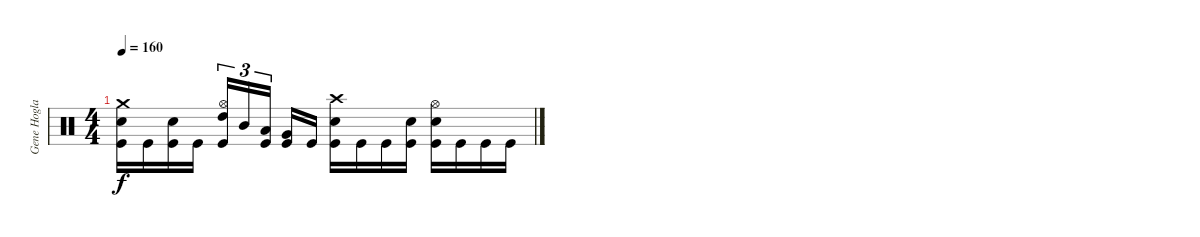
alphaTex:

\track ("Gene Hoglan" "Gene Hogla") {instrument percussion}
\staff {score}
\articulation defaults
\ts (4 4)
\tempo 160
\clef neutral
\ks c
("Crash medium (hit)" "Electric Snare (hit)" "Kick (hit)").16{dy f} "Kick (hit)".16 ("Electric Snare (hit)" "Kick (hit)").16 "Kick (hit)".16 ("Hi-Hat (open)" "High Tom (hit)" "Kick (hit)").16{tu (3 2)} "Mid Tom (hit)".16{tu (3 2)} ("Low Tom (hit)" "Kick (hit)").16{tu (3 2)} ("Very Low Tom (hit)" "Kick (hit)").16 "Kick (hit)".16 ("Crash high (hit)" "Electric Snare (hit)" "Kick (hit)").16 "Kick (hit)".16 "Kick (hit)".16 ("Electric Snare (hit)" "Kick (hit)").16 ("Hi-Hat (open)" "Electric Snare (hit)" "Kick (hit)").16 "Kick (hit)".16 "Kick (hit)".16 "Kick (hit)".16
